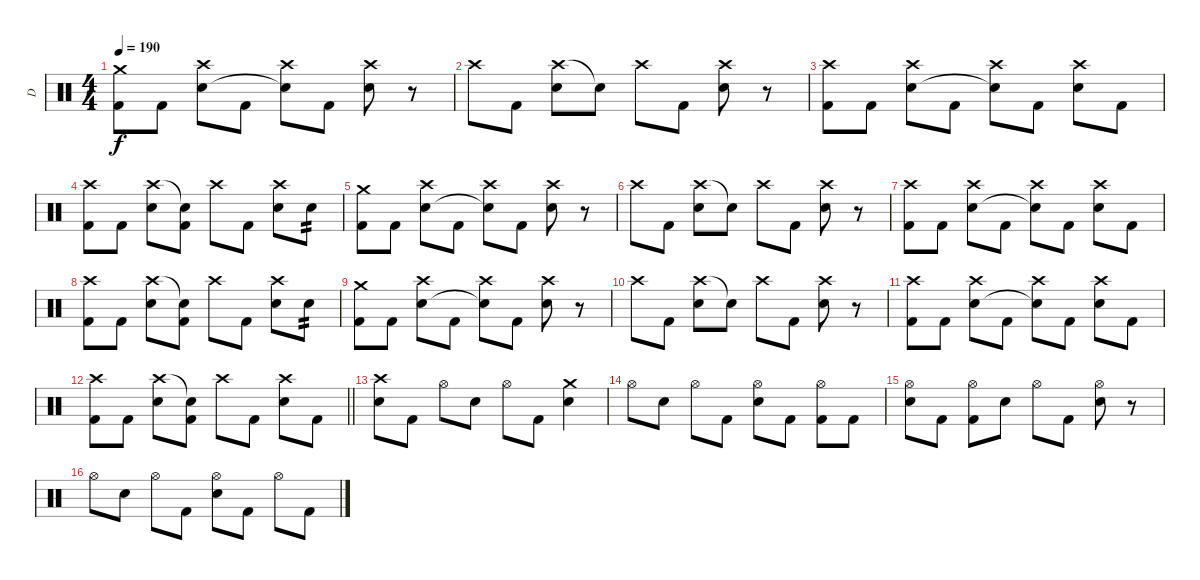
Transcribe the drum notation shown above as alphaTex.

\track ("D" "D") {instrument percussion}
\staff {score}
\articulation defaults
\ts (4 4)
\tempo 190
\clef neutral
\ks c
("Crash medium (hit)" "Kick (hit) 2").8{dy f} "Kick (hit) 2".8 ("Crash high (hit)" "Electric Snare (hit)").8 "Kick (hit) 2".8 ("Crash high (hit)" "Snare (hit)"{t}).8 "Kick (hit) 2".8 ("Crash high (hit)" "Electric Snare (hit)").8 r.8 |
"Crash high (hit)".8 "Kick (hit) 2".8 ("Crash high (hit)" "Electric Snare (hit)").8 "Snare (hit)"{t}.8 "Crash high (hit)".8 "Kick (hit) 2".8 ("Crash high (hit)" "Electric Snare (hit)").8 r.8 |
("Crash high (hit)" "Kick (hit) 2").8 "Kick (hit) 2".8 ("Crash high (hit)" "Electric Snare (hit)").8 "Kick (hit) 2".8 ("Crash high (hit)" "Snare (hit)"{t}).8 "Kick (hit) 2".8 ("Crash high (hit)" "Electric Snare (hit)").8 "Kick (hit) 2".8 |
("Crash high (hit)" "Kick (hit) 2").8 "Kick (hit) 2".8 ("Crash high (hit)" "Electric Snare (hit)").8 ("Snare (hit)"{t} "Kick (hit) 2").8 "Crash high (hit)".8 "Kick (hit) 2".8 ("Crash high (hit)" "Electric Snare (hit)").8 "Electric Snare (hit)".8{tp 2} |
("Crash medium (hit)" "Kick (hit) 2").8 "Kick (hit) 2".8 ("Crash high (hit)" "Electric Snare (hit)").8 "Kick (hit) 2".8 ("Crash high (hit)" "Snare (hit)"{t}).8 "Kick (hit) 2".8 ("Crash high (hit)" "Electric Snare (hit)").8 r.8 |
"Crash high (hit)".8 "Kick (hit) 2".8 ("Crash high (hit)" "Electric Snare (hit)").8 "Snare (hit)"{t}.8 "Crash high (hit)".8 "Kick (hit) 2".8 ("Crash high (hit)" "Electric Snare (hit)").8 r.8 |
("Crash high (hit)" "Kick (hit) 2").8 "Kick (hit) 2".8 ("Crash high (hit)" "Electric Snare (hit)").8 "Kick (hit) 2".8 ("Crash high (hit)" "Snare (hit)"{t}).8 "Kick (hit) 2".8 ("Crash high (hit)" "Electric Snare (hit)").8 "Kick (hit) 2".8 |
("Crash high (hit)" "Kick (hit) 2").8 "Kick (hit) 2".8 ("Crash high (hit)" "Electric Snare (hit)").8 ("Snare (hit)"{t} "Kick (hit) 2").8 "Crash high (hit)".8 "Kick (hit) 2".8 ("Crash high (hit)" "Electric Snare (hit)").8 "Electric Snare (hit)".8{tp 2} |
("Crash medium (hit)" "Kick (hit) 2").8 "Kick (hit) 2".8 ("Crash high (hit)" "Electric Snare (hit)").8 "Kick (hit) 2".8 ("Crash high (hit)" "Snare (hit)"{t}).8 "Kick (hit) 2".8 ("Crash high (hit)" "Electric Snare (hit)").8 r.8 |
"Crash high (hit)".8 "Kick (hit) 2".8 ("Crash high (hit)" "Electric Snare (hit)").8 "Snare (hit)"{t}.8 "Crash high (hit)".8 "Kick (hit) 2".8 ("Crash high (hit)" "Electric Snare (hit)").8 r.8 |
("Crash high (hit)" "Kick (hit) 2").8 "Kick (hit) 2".8 ("Crash high (hit)" "Electric Snare (hit)").8 "Kick (hit) 2".8 ("Crash high (hit)" "Snare (hit)"{t}).8 "Kick (hit) 2".8 ("Crash high (hit)" "Electric Snare (hit)").8 "Kick (hit) 2".8 |
\barLineRight lightlight
("Crash high (hit)" "Kick (hit) 2").8 "Kick (hit) 2".8 ("Crash high (hit)" "Electric Snare (hit)").8 ("Snare (hit)"{t} "Kick (hit) 2").8 "Crash high (hit)".8 "Kick (hit) 2".8 ("Crash high (hit)" "Electric Snare (hit)").8 "Kick (hit) 2".8 |
\section ("" "")
("Crash high (hit)" "Electric Snare (hit)").8 "Kick (hit) 2".8 "Hi-Hat (open)".8 "Electric Snare (hit)".8 "Hi-Hat (open)".8 "Kick (hit) 2".8 ("Crash medium (hit)" "Electric Snare (hit)").4 |
"Hi-Hat (open)".8 "Electric Snare (hit)".8 "Hi-Hat (open)".8 "Kick (hit) 2".8 ("Hi-Hat (open)" "Electric Snare (hit)").8 "Kick (hit) 2".8 ("Hi-Hat (open)" "Kick (hit) 2").8 "Kick (hit) 2".8 |
("Hi-Hat (open)" "Electric Snare (hit)").8 "Kick (hit) 2".8 ("Hi-Hat (open)" "Kick (hit) 2").8 "Electric Snare (hit)".8 "Hi-Hat (open)".8 "Kick (hit) 2".8 ("Hi-Hat (open)" "Electric Snare (hit)").8 r.8 |
"Hi-Hat (open)".8 "Electric Snare (hit)".8 "Hi-Hat (open)".8 "Kick (hit) 2".8 ("Hi-Hat (open)" "Electric Snare (hit)").8 "Kick (hit) 2".8 "Hi-Hat (open)".8 "Kick (hit) 2".8
